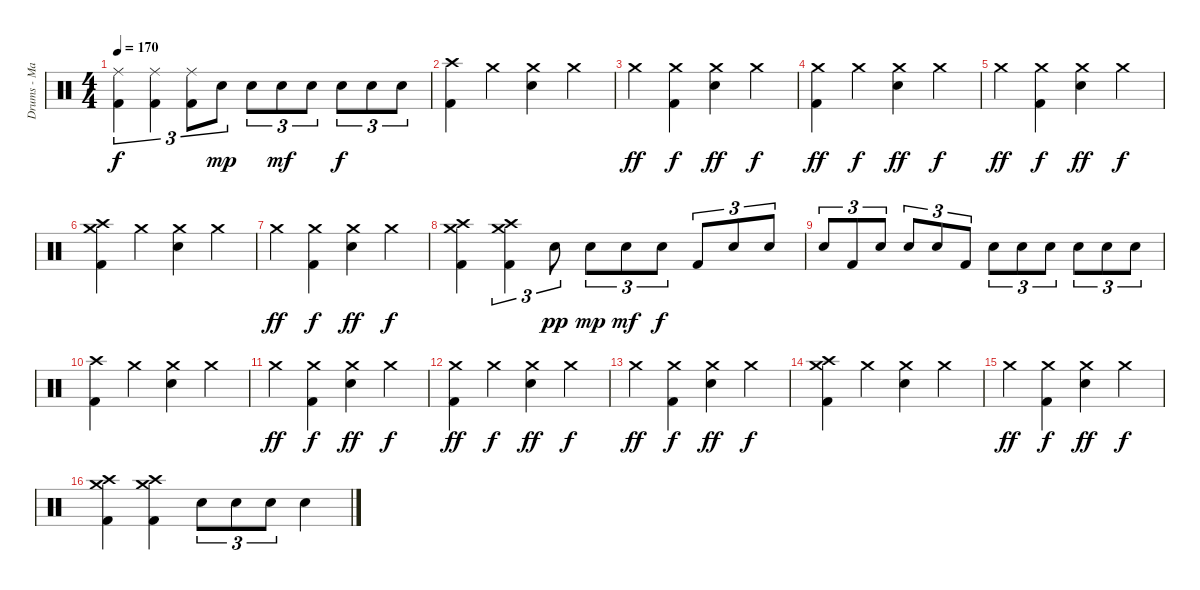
\track ("Drums - Mario Duplantier" "Drums - Ma") {instrument percussion}
\staff {score}
\articulation defaults
\ts (4 4)
\tempo 170
\clef neutral
\ks c
("Ride (middle)" "Kick (hit) 2").4{tu (3 2) dy f} ("Ride (middle)" "Kick (hit) 2").4{tu (3 2)} ("Ride (middle)" "Kick (hit) 2").8{tu (3 2)} "Snare (hit) 2".8{tu (3 2) dy mp} "Snare (hit) 2".8{tu (3 2)} "Snare (hit) 2".8{tu (3 2) dy mf} "Snare (hit) 2".8{tu (3 2)} "Snare (hit) 2".8{tu (3 2) dy f} "Snare (hit) 2".8{tu (3 2)} "Snare (hit) 2".8{tu (3 2)} |
("Crash high (hit)" "Kick (hit) 2").4 "Crash medium (hit)".4 ("Crash medium (hit)" "Snare (hit) 2").4 "Crash medium (hit)".4 |
"Crash medium (hit)".4{dy ff} ("Crash medium (hit)" "Kick (hit) 2").4{dy f} ("Crash medium (hit)" "Snare (hit) 2").4{dy ff} "Crash medium (hit)".4{dy f} |
("Crash medium (hit)" "Kick (hit) 2").4{dy ff} "Crash medium (hit)".4{dy f} ("Crash medium (hit)" "Snare (hit) 2").4{dy ff} "Crash medium (hit)".4{dy f} |
"Crash medium (hit)".4{dy ff} ("Crash medium (hit)" "Kick (hit) 2").4{dy f} ("Crash medium (hit)" "Snare (hit) 2").4{dy ff} "Crash medium (hit)".4{dy f} |
("Crash medium (hit)" "Crash high (hit)" "Kick (hit) 2").4 "Crash medium (hit)".4 ("Crash medium (hit)" "Snare (hit) 2").4 "Crash medium (hit)".4 |
"Crash medium (hit)".4{dy ff} ("Crash medium (hit)" "Kick (hit) 2").4{dy f} ("Crash medium (hit)" "Snare (hit) 2").4{dy ff} "Crash medium (hit)".4{dy f} |
("Crash medium (hit)" "Crash high (hit)" "Kick (hit) 2").4 ("Crash medium (hit)" "Crash high (hit)" "Kick (hit) 2").4{tu (3 2)} "Snare (hit) 2".8{tu (3 2) dy pp} "Snare (hit) 2".8{tu (3 2) dy mp} "Snare (hit) 2".8{tu (3 2) dy mf} "Snare (hit) 2".8{tu (3 2) dy f} "Kick (hit) 2".8{tu (3 2)} "Snare (hit) 2".8{tu (3 2)} "Snare (hit) 2".8{tu (3 2)} |
"Snare (hit) 2".8{tu (3 2)} "Kick (hit) 2".8{tu (3 2)} "Snare (hit) 2".8{tu (3 2)} "Snare (hit) 2".8{tu (3 2)} "Snare (hit) 2".8{tu (3 2)} "Kick (hit) 2".8{tu (3 2)} "Snare (hit) 2".8{tu (3 2)} "Snare (hit) 2".8{tu (3 2)} "Snare (hit) 2".8{tu (3 2)} "Snare (hit) 2".8{tu (3 2)} "Snare (hit) 2".8{tu (3 2)} "Snare (hit) 2".8{tu (3 2)} |
("Crash high (hit)" "Kick (hit) 2").4 "Crash medium (hit)".4 ("Crash medium (hit)" "Snare (hit) 2").4 "Crash medium (hit)".4 |
"Crash medium (hit)".4{dy ff} ("Crash medium (hit)" "Kick (hit) 2").4{dy f} ("Crash medium (hit)" "Snare (hit) 2").4{dy ff} "Crash medium (hit)".4{dy f} |
("Crash medium (hit)" "Kick (hit) 2").4{dy ff} "Crash medium (hit)".4{dy f} ("Crash medium (hit)" "Snare (hit) 2").4{dy ff} "Crash medium (hit)".4{dy f} |
"Crash medium (hit)".4{dy ff} ("Crash medium (hit)" "Kick (hit) 2").4{dy f} ("Crash medium (hit)" "Snare (hit) 2").4{dy ff} "Crash medium (hit)".4{dy f} |
("Crash medium (hit)" "Crash high (hit)" "Kick (hit) 2").4 "Crash medium (hit)".4 ("Crash medium (hit)" "Snare (hit) 2").4 "Crash medium (hit)".4 |
"Crash medium (hit)".4{dy ff} ("Crash medium (hit)" "Kick (hit) 2").4{dy f} ("Crash medium (hit)" "Snare (hit) 2").4{dy ff} "Crash medium (hit)".4{dy f} |
("Crash medium (hit)" "Crash high (hit)" "Kick (hit) 2").4 ("Crash medium (hit)" "Crash high (hit)" "Kick (hit) 2").4 "Snare (hit) 2".8{tu (3 2)} "Snare (hit) 2".8{tu (3 2)} "Snare (hit) 2".8{tu (3 2)} "Snare (hit) 2".4
